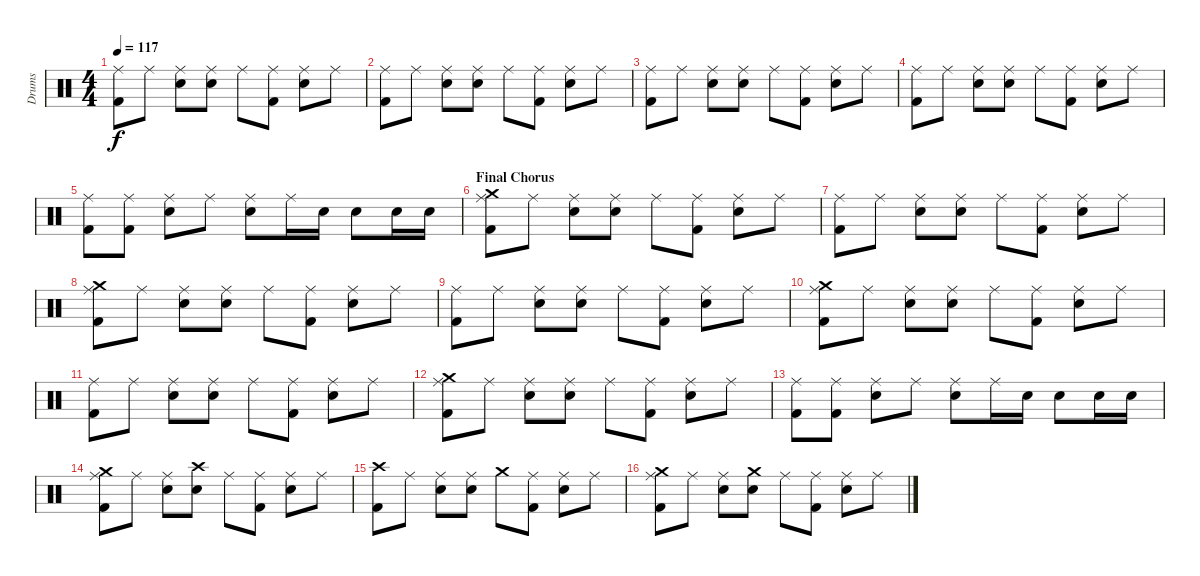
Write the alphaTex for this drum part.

\track ("Drums" "Drums") {instrument percussion}
\staff {score}
\articulation defaults
\ts (4 4)
\tempo 117
\clef neutral
\ks c
("Ride (middle)" "Kick (hit) 2").8{dy f} "Ride (middle)".8 ("Ride (middle)" "Electric Snare (hit)").8 ("Ride (middle)" "Electric Snare (hit)").8 "Ride (middle)".8 ("Ride (middle)" "Kick (hit) 2").8 ("Ride (middle)" "Electric Snare (hit)").8 "Ride (middle)".8 |
("Ride (middle)" "Kick (hit) 2").8 "Ride (middle)".8 ("Ride (middle)" "Electric Snare (hit)").8 ("Ride (middle)" "Electric Snare (hit)").8 "Ride (middle)".8 ("Ride (middle)" "Kick (hit) 2").8 ("Ride (middle)" "Electric Snare (hit)").8 "Ride (middle)".8 |
("Ride (middle)" "Kick (hit) 2").8 "Ride (middle)".8 ("Ride (middle)" "Electric Snare (hit)").8 ("Ride (middle)" "Electric Snare (hit)").8 "Ride (middle)".8 ("Ride (middle)" "Kick (hit) 2").8 ("Ride (middle)" "Electric Snare (hit)").8 "Ride (middle)".8 |
("Ride (middle)" "Kick (hit) 2").8 "Ride (middle)".8 ("Ride (middle)" "Electric Snare (hit)").8 ("Ride (middle)" "Electric Snare (hit)").8 "Ride (middle)".8 ("Ride (middle)" "Kick (hit) 2").8 ("Ride (middle)" "Electric Snare (hit)").8 "Ride (middle)".8 |
("Ride (middle)" "Kick (hit) 2").8 ("Ride (middle)" "Kick (hit) 2").8 ("Ride (middle)" "Electric Snare (hit)").8 "Ride (middle)".8 ("Ride (middle)" "Electric Snare (hit)").8 "Ride (middle)".16 "Electric Snare (hit)".16 "Electric Snare (hit)".8 "Electric Snare (hit)".16 "Electric Snare (hit)".16 |
\section ("" "Final Chorus")
("Ride (middle)" "Crash medium (hit)" "Kick (hit) 2").8 "Ride (middle)".8 ("Ride (middle)" "Electric Snare (hit)").8 ("Ride (middle)" "Electric Snare (hit)").8 "Ride (middle)".8 ("Ride (middle)" "Kick (hit) 2").8 ("Ride (middle)" "Electric Snare (hit)").8 "Ride (middle)".8 |
("Ride (middle)" "Kick (hit) 2").8 "Ride (middle)".8 ("Ride (middle)" "Electric Snare (hit)").8 ("Ride (middle)" "Electric Snare (hit)").8 "Ride (middle)".8 ("Ride (middle)" "Kick (hit) 2").8 ("Ride (middle)" "Electric Snare (hit)").8 "Ride (middle)".8 |
("Ride (middle)" "Crash medium (hit)" "Kick (hit) 2").8 "Ride (middle)".8 ("Ride (middle)" "Electric Snare (hit)").8 ("Ride (middle)" "Electric Snare (hit)").8 "Ride (middle)".8 ("Ride (middle)" "Kick (hit) 2").8 ("Ride (middle)" "Electric Snare (hit)").8 "Ride (middle)".8 |
("Ride (middle)" "Kick (hit) 2").8 "Ride (middle)".8 ("Ride (middle)" "Electric Snare (hit)").8 ("Ride (middle)" "Electric Snare (hit)").8 "Ride (middle)".8 ("Ride (middle)" "Kick (hit) 2").8 ("Ride (middle)" "Electric Snare (hit)").8 "Ride (middle)".8 |
("Ride (middle)" "Crash medium (hit)" "Kick (hit) 2").8 "Ride (middle)".8 ("Ride (middle)" "Electric Snare (hit)").8 ("Ride (middle)" "Electric Snare (hit)").8 "Ride (middle)".8 ("Ride (middle)" "Kick (hit) 2").8 ("Ride (middle)" "Electric Snare (hit)").8 "Ride (middle)".8 |
("Ride (middle)" "Kick (hit) 2").8 "Ride (middle)".8 ("Ride (middle)" "Electric Snare (hit)").8 ("Ride (middle)" "Electric Snare (hit)").8 "Ride (middle)".8 ("Ride (middle)" "Kick (hit) 2").8 ("Ride (middle)" "Electric Snare (hit)").8 "Ride (middle)".8 |
("Ride (middle)" "Crash medium (hit)" "Kick (hit) 2").8 "Ride (middle)".8 ("Ride (middle)" "Electric Snare (hit)").8 ("Ride (middle)" "Electric Snare (hit)").8 "Ride (middle)".8 ("Ride (middle)" "Kick (hit) 2").8 ("Ride (middle)" "Electric Snare (hit)").8 "Ride (middle)".8 |
("Ride (middle)" "Kick (hit) 2").8 ("Ride (middle)" "Kick (hit) 2").8 ("Ride (middle)" "Electric Snare (hit)").8 "Ride (middle)".8 ("Ride (middle)" "Electric Snare (hit)").8 "Ride (middle)".16 "Electric Snare (hit)".16 "Electric Snare (hit)".8 "Electric Snare (hit)".16 "Electric Snare (hit)".16 |
("Ride (middle)" "Crash medium (hit)" "Kick (hit) 2").8 "Ride (middle)".8 ("Ride (middle)" "Electric Snare (hit)").8 ("Crash high (hit)" "Electric Snare (hit)").8 "Ride (middle)".8 ("Ride (middle)" "Kick (hit) 2").8 ("Ride (middle)" "Electric Snare (hit)").8 "Ride (middle)".8 |
("Crash high (hit)" "Kick (hit) 2").8 "Ride (middle)".8 ("Ride (middle)" "Electric Snare (hit)").8 ("Ride (middle)" "Electric Snare (hit)").8 "Crash medium (hit)".8 ("Ride (middle)" "Kick (hit) 2").8 ("Ride (middle)" "Electric Snare (hit)").8 "Ride (middle)".8 |
("Ride (middle)" "Crash medium (hit)" "Kick (hit) 2").8 "Ride (middle)".8 ("Ride (middle)" "Electric Snare (hit)").8 ("Crash medium (hit)" "Electric Snare (hit)").8 "Ride (middle)".8 ("Ride (middle)" "Kick (hit) 2").8 ("Ride (middle)" "Electric Snare (hit)").8 "Ride (middle)".8
